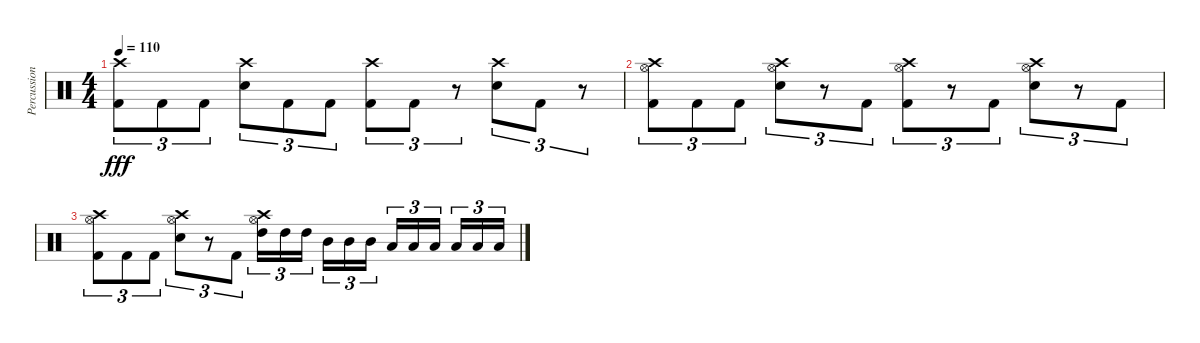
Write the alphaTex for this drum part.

\track ("Percussion" "Percussion") {instrument percussion}
\staff {score}
\articulation defaults
\ts (4 4)
\tempo 110
\clef neutral
\ks c
("Crash high (hit)" "Kick (hit) 2").8{tu (3 2) dy fff} "Kick (hit) 2".8{tu (3 2)} "Kick (hit) 2".8{tu (3 2)} ("Crash high (hit)" "Snare (hit) 2").8{tu (3 2)} "Kick (hit) 2".8{tu (3 2)} "Kick (hit) 2".8{tu (3 2)} ("Crash high (hit)" "Kick (hit) 2").8{tu (3 2)} "Kick (hit) 2".8{tu (3 2)} r.8{tu (3 2)} ("Crash high (hit)" "Snare (hit) 2").8{tu (3 2)} "Kick (hit) 2".8{tu (3 2)} r.8{tu (3 2)} |
("Crash high (hit)" "Hi-Hat (open)" "Kick (hit) 2").8{tu (3 2) volume 0} "Kick (hit) 2".8{tu (3 2)} "Kick (hit) 2".8{tu (3 2)} ("Crash high (hit)" "Hi-Hat (open)" "Snare (hit) 2").8{tu (3 2)} r.8{tu (3 2)} "Kick (hit) 2".8{tu (3 2)} ("Crash high (hit)" "Hi-Hat (open)" "Kick (hit) 2").8{tu (3 2)} r.8{tu (3 2)} "Kick (hit) 2".8{tu (3 2)} ("Crash high (hit)" "Hi-Hat (open)" "Snare (hit) 2").8{tu (3 2)} r.8{tu (3 2)} "Kick (hit) 2".8{tu (3 2)} |
("Crash high (hit)" "Hi-Hat (open)" "Kick (hit) 2").8{tu (3 2)} "Kick (hit) 2".8{tu (3 2)} "Kick (hit) 2".8{tu (3 2)} ("Crash high (hit)" "Hi-Hat (open)" "Snare (hit) 2").8{tu (3 2)} r.8{tu (3 2)} "Kick (hit) 2".8{tu (3 2)} ("Crash high (hit)" "Hi-Hat (open)" "High Tom (hit)").16{tu (3 2)} "High Tom (hit)".16{tu (3 2)} "High Tom (hit)".16{tu (3 2)} "Mid Tom (hit)".16{tu (3 2)} "Mid Tom (hit)".16{tu (3 2)} "Mid Tom (hit)".16{tu (3 2)} "Low Tom (hit)".16{tu (3 2)} "Low Tom (hit)".16{tu (3 2)} "Low Tom (hit)".16{tu (3 2)} "Low Tom (hit)".16{tu (3 2)} "Low Tom (hit)".16{tu (3 2)} "Low Tom (hit)".16{tu (3 2)}
